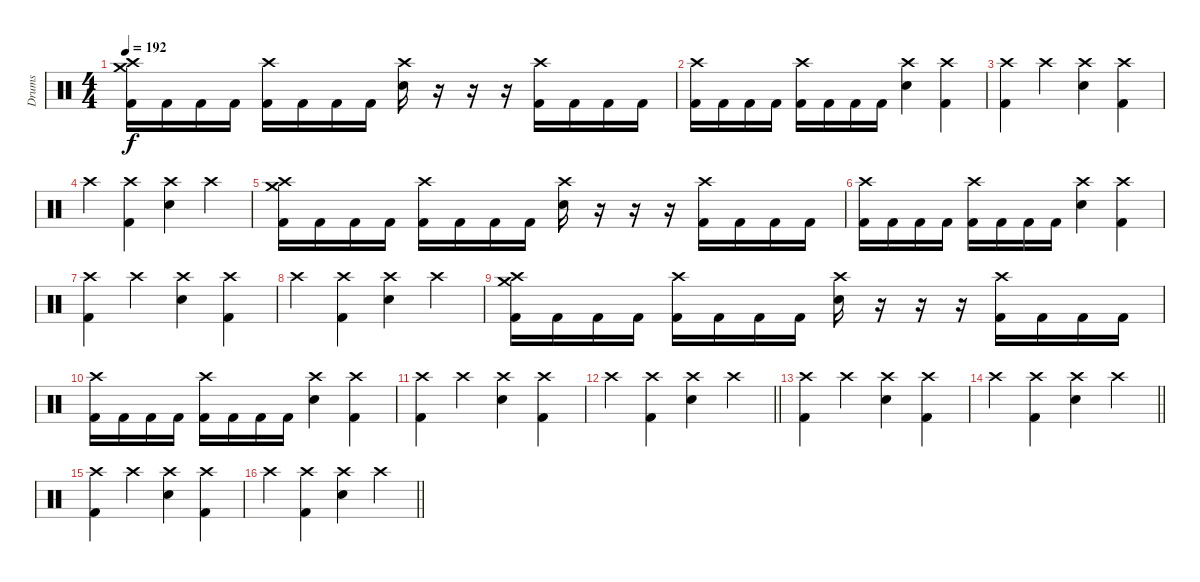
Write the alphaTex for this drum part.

\track ("Drums" "Drums") {instrument percussion}
\staff {score}
\articulation defaults
\ts (4 4)
\tempo 192
\clef neutral
\ks c
("Crash high (hit)" "Crash medium (hit)" "Kick (hit) 2").16{dy f} "Kick (hit) 2".16 "Kick (hit) 2".16 "Kick (hit) 2".16 ("Crash high (hit)" "Kick (hit) 2").16 "Kick (hit) 2".16 "Kick (hit) 2".16 "Kick (hit) 2".16 ("Crash high (hit)" "Snare (hit) 2").16 r.16 r.16 r.16 ("Crash high (hit)" "Kick (hit) 2").16 "Kick (hit) 2".16 "Kick (hit) 2".16 "Kick (hit) 2".16 |
("Crash high (hit)" "Kick (hit) 2").16 "Kick (hit) 2".16 "Kick (hit) 2".16 "Kick (hit) 2".16 ("Crash high (hit)" "Kick (hit) 2").16 "Kick (hit) 2".16 "Kick (hit) 2".16 "Kick (hit) 2".16 ("Crash high (hit)" "Snare (hit) 2").4 ("Crash high (hit)" "Kick (hit) 2").4 |
("Crash high (hit)" "Kick (hit) 2").4 "Crash high (hit)".4 ("Crash high (hit)" "Snare (hit) 2").4 ("Crash high (hit)" "Kick (hit) 2").4 |
"Crash high (hit)".4 ("Crash high (hit)" "Kick (hit) 2").4 ("Crash high (hit)" "Snare (hit) 2").4 "Crash high (hit)".4 |
("Crash high (hit)" "Crash medium (hit)" "Kick (hit) 2").16 "Kick (hit) 2".16 "Kick (hit) 2".16 "Kick (hit) 2".16 ("Crash high (hit)" "Kick (hit) 2").16 "Kick (hit) 2".16 "Kick (hit) 2".16 "Kick (hit) 2".16 ("Crash high (hit)" "Snare (hit) 2").16 r.16 r.16 r.16 ("Crash high (hit)" "Kick (hit) 2").16 "Kick (hit) 2".16 "Kick (hit) 2".16 "Kick (hit) 2".16 |
("Crash high (hit)" "Kick (hit) 2").16 "Kick (hit) 2".16 "Kick (hit) 2".16 "Kick (hit) 2".16 ("Crash high (hit)" "Kick (hit) 2").16 "Kick (hit) 2".16 "Kick (hit) 2".16 "Kick (hit) 2".16 ("Crash high (hit)" "Snare (hit) 2").4 ("Crash high (hit)" "Kick (hit) 2").4 |
("Crash high (hit)" "Kick (hit) 2").4 "Crash high (hit)".4 ("Crash high (hit)" "Snare (hit) 2").4 ("Crash high (hit)" "Kick (hit) 2").4 |
"Crash high (hit)".4 ("Crash high (hit)" "Kick (hit) 2").4 ("Crash high (hit)" "Snare (hit) 2").4 "Crash high (hit)".4 |
("Crash high (hit)" "Crash medium (hit)" "Kick (hit) 2").16 "Kick (hit) 2".16 "Kick (hit) 2".16 "Kick (hit) 2".16 ("Crash high (hit)" "Kick (hit) 2").16 "Kick (hit) 2".16 "Kick (hit) 2".16 "Kick (hit) 2".16 ("Crash high (hit)" "Snare (hit) 2").16 r.16 r.16 r.16 ("Crash high (hit)" "Kick (hit) 2").16 "Kick (hit) 2".16 "Kick (hit) 2".16 "Kick (hit) 2".16 |
("Crash high (hit)" "Kick (hit) 2").16 "Kick (hit) 2".16 "Kick (hit) 2".16 "Kick (hit) 2".16 ("Crash high (hit)" "Kick (hit) 2").16 "Kick (hit) 2".16 "Kick (hit) 2".16 "Kick (hit) 2".16 ("Crash high (hit)" "Snare (hit) 2").4 ("Crash high (hit)" "Kick (hit) 2").4 |
("Crash high (hit)" "Kick (hit) 2").4 "Crash high (hit)".4 ("Crash high (hit)" "Snare (hit) 2").4 ("Crash high (hit)" "Kick (hit) 2").4 |
\barLineRight lightlight "Crash high (hit)".4
("Crash high (hit)" "Kick (hit) 2").4 ("Crash high (hit)" "Snare (hit) 2").4 "Crash high (hit)".4 |
\section ("" ".")
("Crash high (hit)" "Kick (hit) 2").4 "Crash high (hit)".4 ("Crash high (hit)" "Snare (hit) 2").4 ("Crash high (hit)" "Kick (hit) 2").4 |
\barLineRight lightlight "Crash high (hit)".4
("Crash high (hit)" "Kick (hit) 2").4 ("Crash high (hit)" "Snare (hit) 2").4 "Crash high (hit)".4 |
("Crash high (hit)" "Kick (hit) 2").4 "Crash high (hit)".4 ("Crash high (hit)" "Snare (hit) 2").4 ("Crash high (hit)" "Kick (hit) 2").4 |
\barLineRight lightlight "Crash high (hit)".4
("Crash high (hit)" "Kick (hit) 2").4 ("Crash high (hit)" "Snare (hit) 2").4 "Crash high (hit)".4
